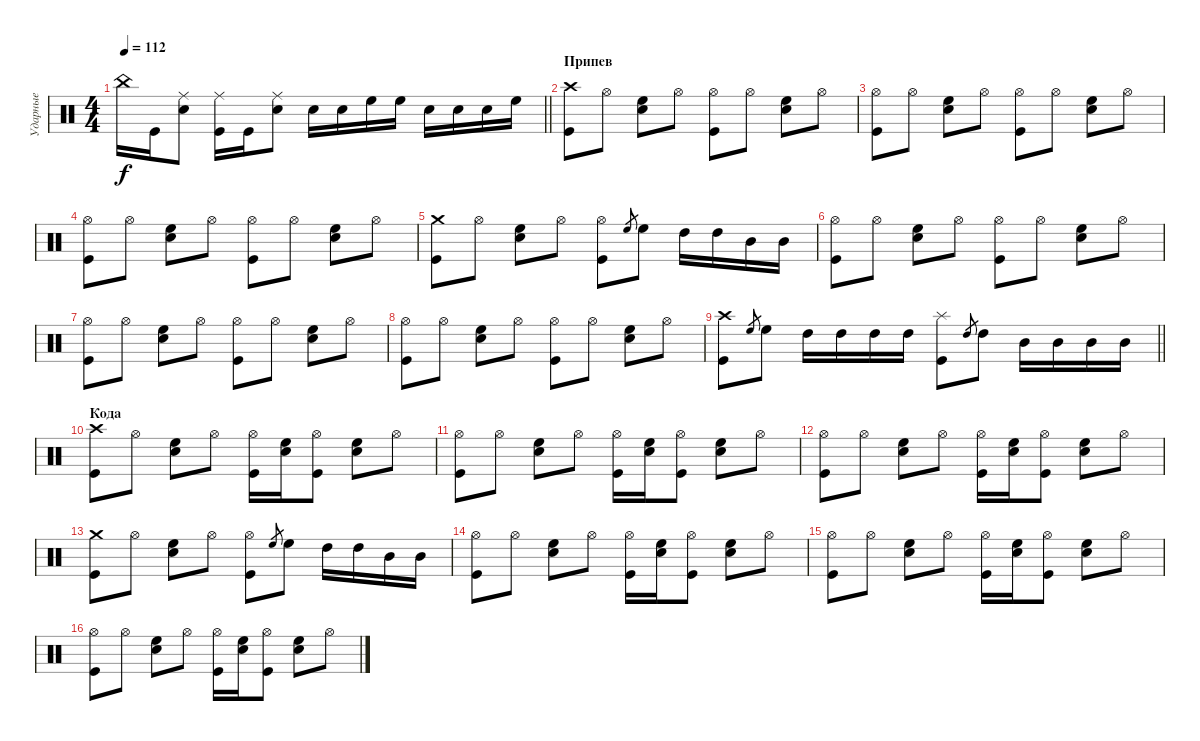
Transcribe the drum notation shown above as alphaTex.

\track ("Ударные" "Ударные") {instrument percussion}
\staff {score}
\articulation defaults
\ts (4 4)
\tempo 112
\clef neutral
\barLineRight lightlight
\ks aminor "China (hit)"{t}.16{dy f} "Kick (hit)".16
("Electric Snare (hit)" "Ride (middle)").8 ("Kick (hit)" "Ride (middle)").16 "Kick (hit)".16 ("Electric Snare (hit)" "Ride (middle)").8 "Electric Snare (hit)".16 "Electric Snare (hit)".16 "High Floor Tom (hit)".16 "High Floor Tom (hit)".16 "Electric Snare (hit)".16 "Electric Snare (hit)".16 "Electric Snare (hit)".16 "High Floor Tom (hit)".16 |
\section ("" "Припев")
("Kick (hit)" "Crash high (hit)").8 "Hi-Hat (open)".8 ("High Floor Tom (hit)" "Electric Snare (hit)").8 "Hi-Hat (open)".8 ("Kick (hit)" "Hi-Hat (open)").8 "Hi-Hat (open)".8 ("High Floor Tom (hit)" "Electric Snare (hit)").8 "Hi-Hat (open)".8 |
("Kick (hit)" "Hi-Hat (open)").8 "Hi-Hat (open)".8 ("High Floor Tom (hit)" "Electric Snare (hit)").8 "Hi-Hat (open)".8 ("Kick (hit)" "Hi-Hat (open)").8 "Hi-Hat (open)".8 ("High Floor Tom (hit)" "Electric Snare (hit)").8 "Hi-Hat (open)".8 |
("Kick (hit)" "Hi-Hat (open)").8 "Hi-Hat (open)".8 ("High Floor Tom (hit)" "Electric Snare (hit)").8 "Hi-Hat (open)".8 ("Kick (hit)" "Hi-Hat (open)").8 "Hi-Hat (open)".8 ("High Floor Tom (hit)" "Electric Snare (hit)").8 "Hi-Hat (open)".8 |
("Kick (hit)" "Crash medium (hit)").8 "Hi-Hat (open)".8 ("High Floor Tom (hit)" "Electric Snare (hit)").8 "Hi-Hat (open)".8 ("Kick (hit)" "Hi-Hat (open)").8 "High Floor Tom (hit)".8{gr} "High Floor Tom (hit)".8 "High Tom (hit)".16 "High Tom (hit)".16 "Mid Tom (hit)".16 "Mid Tom (hit)".16 |
("Kick (hit)" "Hi-Hat (open)").8 "Hi-Hat (open)".8 ("High Floor Tom (hit)" "Electric Snare (hit)").8 "Hi-Hat (open)".8 ("Kick (hit)" "Hi-Hat (open)").8 "Hi-Hat (open)".8 ("High Floor Tom (hit)" "Electric Snare (hit)").8 "Hi-Hat (open)".8 |
("Kick (hit)" "Hi-Hat (open)").8 "Hi-Hat (open)".8 ("High Floor Tom (hit)" "Electric Snare (hit)").8 "Hi-Hat (open)".8 ("Kick (hit)" "Hi-Hat (open)").8 "Hi-Hat (open)".8 ("High Floor Tom (hit)" "Electric Snare (hit)").8 "Hi-Hat (open)".8 |
("Kick (hit)" "Hi-Hat (open)").8 "Hi-Hat (open)".8 ("High Floor Tom (hit)" "Electric Snare (hit)").8 "Hi-Hat (open)".8 ("Kick (hit)" "Hi-Hat (open)").8 "Hi-Hat (open)".8 ("High Floor Tom (hit)" "Electric Snare (hit)").8 "Hi-Hat (open)".8 |
\barLineRight lightlight
("Kick (hit)" "Crash high (hit)").8 "High Floor Tom (hit)".8{gr} "High Floor Tom (hit)".8 "High Tom (hit)".16 "High Tom (hit)".16 "High Tom (hit)".16 "High Tom (hit)".16 ("Kick (hit)" "Splash (hit)").8 "High Tom (hit)".8{gr} "High Tom (hit)".8 "Mid Tom (hit)".16 "Mid Tom (hit)".16 "Mid Tom (hit)".16 "Mid Tom (hit)".16 |
\section ("" "Кода")
("Crash high (hit)" "Kick (hit)").8 "Hi-Hat (open)".8 ("High Floor Tom (hit)" "Electric Snare (hit)").8 "Hi-Hat (open)".8 ("Kick (hit)" "Hi-Hat (open)").16 ("High Floor Tom (hit)" "Electric Snare (hit)").16 ("Kick (hit)" "Hi-Hat (open)").8 ("High Floor Tom (hit)" "Electric Snare (hit)").8 "Hi-Hat (open)".8 |
("Hi-Hat (open)" "Kick (hit)").8 "Hi-Hat (open)".8 ("High Floor Tom (hit)" "Electric Snare (hit)").8 "Hi-Hat (open)".8 ("Kick (hit)" "Hi-Hat (open)").16 ("High Floor Tom (hit)" "Electric Snare (hit)").16 ("Kick (hit)" "Hi-Hat (open)").8 ("High Floor Tom (hit)" "Electric Snare (hit)").8 "Hi-Hat (open)".8 |
("Hi-Hat (open)" "Kick (hit)").8 "Hi-Hat (open)".8 ("High Floor Tom (hit)" "Electric Snare (hit)").8 "Hi-Hat (open)".8 ("Kick (hit)" "Hi-Hat (open)").16 ("High Floor Tom (hit)" "Electric Snare (hit)").16 ("Kick (hit)" "Hi-Hat (open)").8 ("High Floor Tom (hit)" "Electric Snare (hit)").8 "Hi-Hat (open)".8 |
("Kick (hit)" "Crash medium (hit)").8 "Hi-Hat (open)".8 ("High Floor Tom (hit)" "Electric Snare (hit)").8 "Hi-Hat (open)".8 ("Kick (hit)" "Hi-Hat (open)").8 "High Floor Tom (hit)".8{gr} "High Floor Tom (hit)".8 "High Tom (hit)".16 "High Tom (hit)".16 "Mid Tom (hit)".16 "Mid Tom (hit)".16 |
("Hi-Hat (open)" "Kick (hit)").8 "Hi-Hat (open)".8 ("High Floor Tom (hit)" "Electric Snare (hit)").8 "Hi-Hat (open)".8 ("Kick (hit)" "Hi-Hat (open)").16 ("High Floor Tom (hit)" "Electric Snare (hit)").16 ("Kick (hit)" "Hi-Hat (open)").8 ("High Floor Tom (hit)" "Electric Snare (hit)").8 "Hi-Hat (open)".8 |
("Hi-Hat (open)" "Kick (hit)").8 "Hi-Hat (open)".8 ("High Floor Tom (hit)" "Electric Snare (hit)").8 "Hi-Hat (open)".8 ("Kick (hit)" "Hi-Hat (open)").16 ("High Floor Tom (hit)" "Electric Snare (hit)").16 ("Kick (hit)" "Hi-Hat (open)").8 ("High Floor Tom (hit)" "Electric Snare (hit)").8 "Hi-Hat (open)".8 |
("Hi-Hat (open)" "Kick (hit)").8 "Hi-Hat (open)".8 ("High Floor Tom (hit)" "Electric Snare (hit)").8 "Hi-Hat (open)".8 ("Kick (hit)" "Hi-Hat (open)").16 ("High Floor Tom (hit)" "Electric Snare (hit)").16 ("Kick (hit)" "Hi-Hat (open)").8 ("High Floor Tom (hit)" "Electric Snare (hit)").8 "Hi-Hat (open)".8
